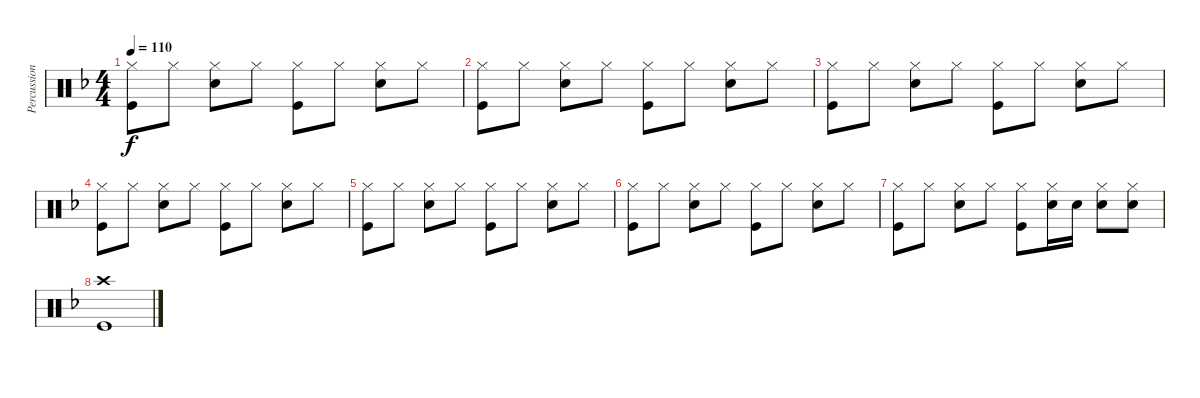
\track ("Percussion" "Percussion") {instrument percussion}
\staff {score}
\articulation defaults
\ts (4 4)
\tempo 110
\clef neutral
\ks dminor
("Hi-Hat (closed)" "Kick (hit)").8{dy f} "Hi-Hat (closed)".8 ("Hi-Hat (closed)" "Snare (hit) 2").8 "Hi-Hat (closed)".8 ("Hi-Hat (closed)" "Kick (hit)").8 "Hi-Hat (closed)".8 ("Hi-Hat (closed)" "Snare (hit) 2").8 "Hi-Hat (closed)".8 |
("Hi-Hat (closed)" "Kick (hit)").8 "Hi-Hat (closed)".8 ("Hi-Hat (closed)" "Snare (hit) 2").8 "Hi-Hat (closed)".8 ("Hi-Hat (closed)" "Kick (hit)").8 "Hi-Hat (closed)".8 ("Hi-Hat (closed)" "Snare (hit) 2").8 "Hi-Hat (closed)".8 |
("Hi-Hat (closed)" "Kick (hit)").8 "Hi-Hat (closed)".8 ("Hi-Hat (closed)" "Snare (hit) 2").8 "Hi-Hat (closed)".8 ("Hi-Hat (closed)" "Kick (hit)").8 "Hi-Hat (closed)".8 ("Hi-Hat (closed)" "Snare (hit) 2").8 "Hi-Hat (closed)".8 |
("Hi-Hat (closed)" "Kick (hit)").8 "Hi-Hat (closed)".8 ("Hi-Hat (closed)" "Snare (hit) 2").8 "Hi-Hat (closed)".8 ("Hi-Hat (closed)" "Kick (hit)").8 "Hi-Hat (closed)".8 ("Hi-Hat (closed)" "Snare (hit) 2").8 "Hi-Hat (closed)".8 |
("Hi-Hat (closed)" "Kick (hit)").8 "Hi-Hat (closed)".8 ("Hi-Hat (closed)" "Snare (hit) 2").8 "Hi-Hat (closed)".8 ("Hi-Hat (closed)" "Kick (hit)").8 "Hi-Hat (closed)".8 ("Hi-Hat (closed)" "Snare (hit) 2").8 "Hi-Hat (closed)".8 |
("Hi-Hat (closed)" "Kick (hit)").8 "Hi-Hat (closed)".8 ("Hi-Hat (closed)" "Snare (hit) 2").8 "Hi-Hat (closed)".8 ("Hi-Hat (closed)" "Kick (hit)").8 "Hi-Hat (closed)".8 ("Hi-Hat (closed)" "Snare (hit) 2").8 "Hi-Hat (closed)".8 |
("Hi-Hat (closed)" "Kick (hit)").8 "Hi-Hat (closed)".8 ("Hi-Hat (closed)" "Snare (hit) 2").8 "Hi-Hat (closed)".8 ("Hi-Hat (closed)" "Kick (hit)").8 ("Hi-Hat (closed)" "Snare (hit) 2").16 "Snare (hit) 2".16 ("Hi-Hat (closed)" "Snare (hit) 2").8 ("Hi-Hat (closed)" "Snare (hit) 2").8 |
("Crash high (hit)" "Kick (hit)").1
